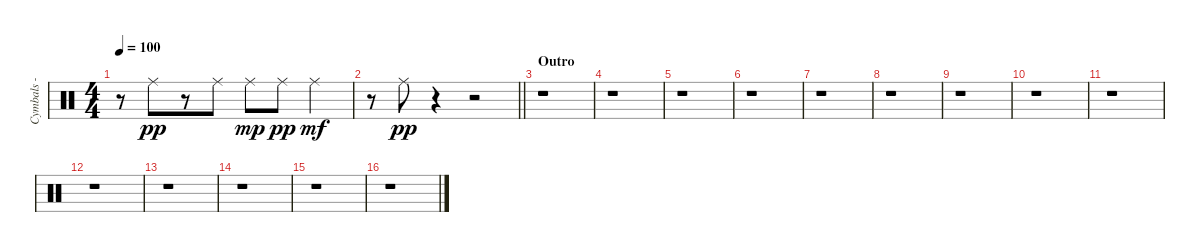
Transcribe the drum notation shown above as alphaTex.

\track ("Cymbals - ride" "Cymbals - ") {instrument percussion}
\staff {score}
\articulation defaults
\ts (4 4)
\tempo 100
\clef neutral
\ks c
r.8{dy mp} "Ride (middle)".8{dy pp beam merge} r.8 "Ride (middle)".8 "Ride (middle)".8{dy mp} "Ride (middle)".8{dy pp} "Ride (middle)".4{dy mf} |
\barLineRight lightlight
r.8 "Ride (middle)".8{dy pp} r.4 r.2 |
\section ("" "Outro")
r.1 |
r.1 |
r.1 |
r.1 |
r.1 |
r.1 |
r.1 |
r.1 |
r.1 |
r.1 |
r.1 |
r.1 |
r.1 |
r.1
